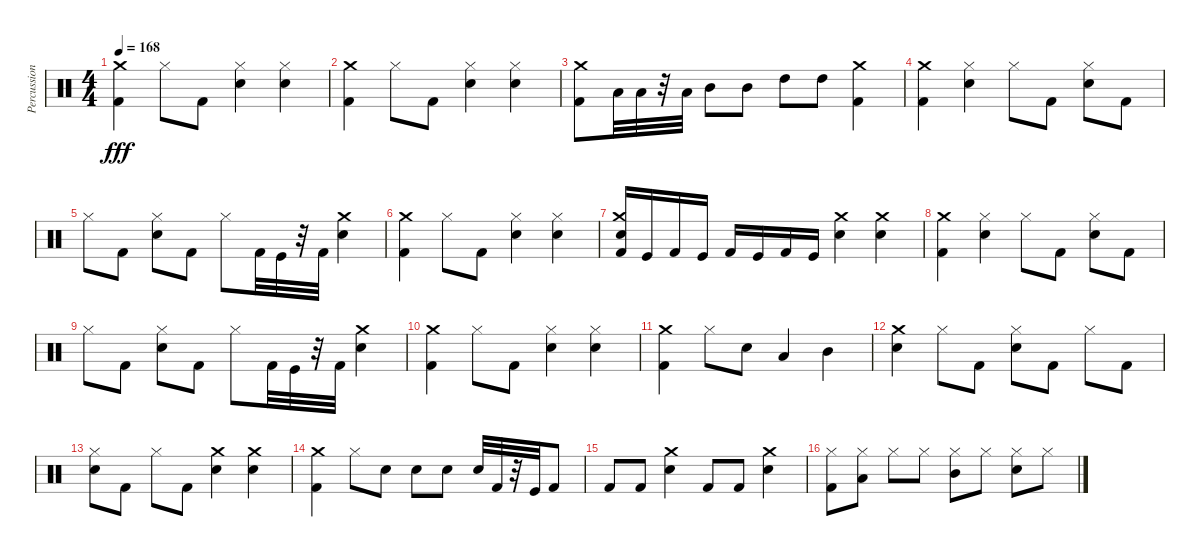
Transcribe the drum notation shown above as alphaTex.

\track ("Percussion" "Percussion") {instrument percussion}
\staff {score}
\articulation defaults
\ts (4 4)
\tempo 168
\clef neutral
\ks c
("Kick (hit) 2" "Crash medium (hit)").4{dy fff} "Hi-Hat (closed)".8 "Kick (hit) 2".8 ("Snare (hit) 2" "Hi-Hat (closed)").4 ("Hi-Hat (closed)" "Snare (hit) 2").4 |
("Kick (hit) 2" "Crash medium (hit)").4 "Hi-Hat (closed)".8 "Kick (hit) 2".8 ("Snare (hit) 2" "Hi-Hat (closed)").4 ("Hi-Hat (closed)" "Snare (hit) 2").4 |
("Kick (hit) 2" "Crash medium (hit)").8 "Low Tom (hit)".32 "Low Tom (hit)".32 r.32 "Low Tom (hit)".32 "Mid Tom (hit)".8 "Mid Tom (hit)".8 "High Tom (hit)".8 "High Tom (hit)".8 ("Crash medium (hit)" "Kick (hit) 2").4 |
("Kick (hit) 2" "Crash medium (hit)").4 ("Hi-Hat (closed)" "Snare (hit) 2").4 "Hi-Hat (closed)".8 "Kick (hit) 2".8 ("Snare (hit) 2" "Hi-Hat (closed)").8 "Kick (hit) 2".8 |
"Hi-Hat (closed)".8 "Kick (hit) 2".8 ("Snare (hit) 2" "Hi-Hat (closed)").8 "Kick (hit) 2".8 "Hi-Hat (closed)".8 "Kick (hit) 2".32 "Kick (hit)".32 r.32 "Kick (hit) 2".32 ("Crash medium (hit)" "Snare (hit) 2").4 |
("Kick (hit) 2" "Crash medium (hit)").4 "Hi-Hat (closed)".8 "Kick (hit) 2".8 ("Snare (hit) 2" "Hi-Hat (closed)").4 ("Hi-Hat (closed)" "Snare (hit) 2").4 |
("Kick (hit) 2" "Snare (hit) 2" "Crash medium (hit)").16 "Kick (hit)".16 "Kick (hit) 2".16 "Kick (hit)".16 "Kick (hit) 2".16 "Kick (hit)".16 "Kick (hit) 2".16 "Kick (hit)".16 ("Crash medium (hit)" "Snare (hit) 2").4 ("Crash medium (hit)" "Snare (hit) 2").4 |
("Kick (hit) 2" "Crash medium (hit)").4 ("Hi-Hat (closed)" "Snare (hit) 2").4 "Hi-Hat (closed)".8 "Kick (hit) 2".8 ("Snare (hit) 2" "Hi-Hat (closed)").8 "Kick (hit) 2".8 |
"Hi-Hat (closed)".8 "Kick (hit) 2".8 ("Snare (hit) 2" "Hi-Hat (closed)").8 "Kick (hit) 2".8 "Hi-Hat (closed)".8 "Kick (hit) 2".32 "Kick (hit)".32 r.32 "Kick (hit) 2".32 ("Crash medium (hit)" "Snare (hit) 2").4 |
("Kick (hit) 2" "Crash medium (hit)").4 "Hi-Hat (closed)".8 "Kick (hit) 2".8 ("Snare (hit) 2" "Hi-Hat (closed)").4 ("Hi-Hat (closed)" "Snare (hit) 2").4 |
("Kick (hit) 2" "Crash medium (hit)").4 "Hi-Hat (closed)".8 "Snare (hit) 2".8 "Low Tom (hit)".4 "Mid Tom (hit)".4 |
("Snare (hit) 2" "Crash medium (hit)").4 "Hi-Hat (closed)".8 "Kick (hit) 2".8 ("Snare (hit) 2" "Hi-Hat (closed)").8 "Kick (hit) 2".8 "Hi-Hat (closed)".8 "Kick (hit) 2".8 |
("Hi-Hat (closed)" "Snare (hit) 2").8 "Kick (hit) 2".8 "Hi-Hat (closed)".8 "Kick (hit) 2".8 ("Crash medium (hit)" "Snare (hit) 2").4 ("Crash medium (hit)" "Snare (hit) 2").4 |
("Kick (hit) 2" "Crash medium (hit)").4 "Hi-Hat (closed)".8 "Snare (hit) 2".8 "Snare (hit) 2".8 "Snare (hit) 2".8 "Snare (hit) 2".32 "Kick (hit) 2".32 r.32 "Kick (hit)".32 "Kick (hit) 2".8 |
"Kick (hit) 2".8 "Kick (hit) 2".8 ("Snare (hit) 2" "Crash medium (hit)").4 "Kick (hit) 2".8 "Kick (hit) 2".8 ("Crash medium (hit)" "Snare (hit) 2").4 |
("Hi-Hat (closed)" "Kick (hit) 2").8 ("Low Tom (hit)" "Hi-Hat (closed)").8 "Hi-Hat (closed)".8 "Hi-Hat (closed)".8 ("Mid Tom (hit)" "Hi-Hat (closed)").8 "Hi-Hat (closed)".8 ("Snare (hit) 2" "Hi-Hat (closed)").8 "Hi-Hat (closed)".8
